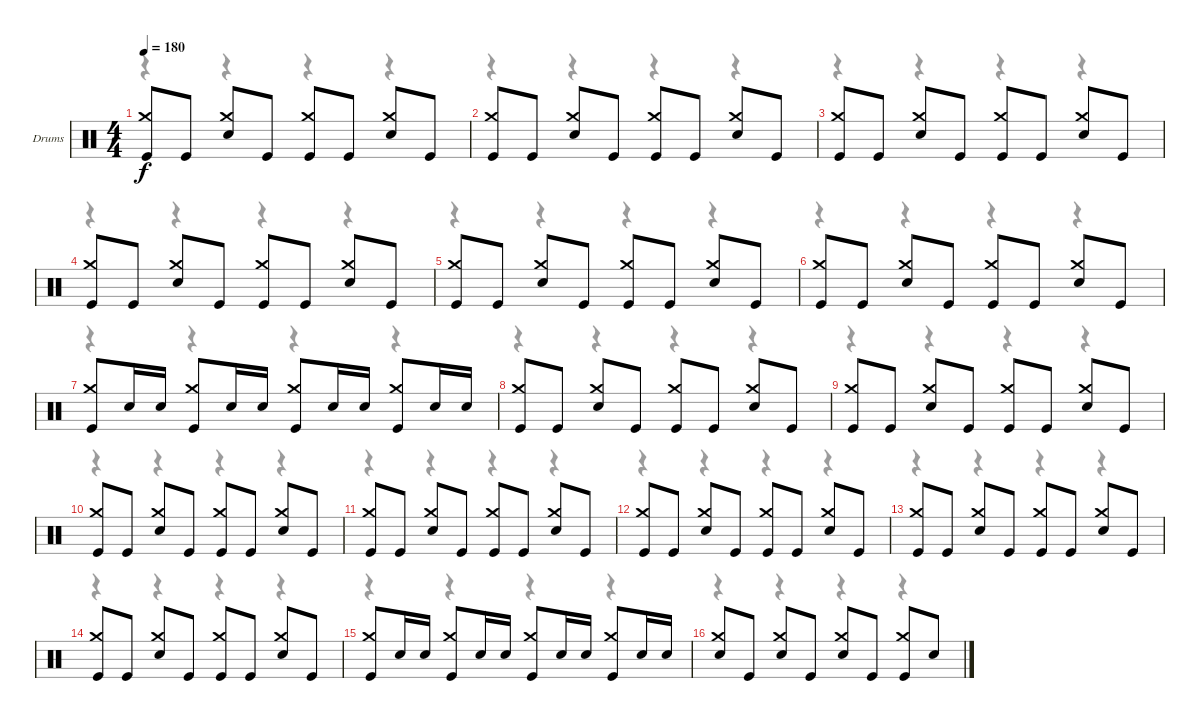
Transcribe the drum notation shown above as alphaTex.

\bracketExtendMode groupsimilarinstruments
\firstSystemTrackNameOrientation horizontal
\otherSystemsTrackNameOrientation horizontal
\track ("Drumkit" "Drums") {instrument percussion}
\staff {score}
\articulation defaults
\voice
\ts (4 4)
\tempo 180
\clef neutral
\ks c
("Crash medium (hit)" "Kick (hit)").8{dy f} "Kick (hit)".8 ("Crash medium (hit)" "Snare (hit) 2").8 "Kick (hit)".8 ("Crash medium (hit)" "Kick (hit)").8 "Kick (hit)".8 ("Crash medium (hit)" "Snare (hit) 2").8 "Kick (hit)".8 |
("Crash medium (hit)" "Kick (hit)").8 "Kick (hit)".8 ("Crash medium (hit)" "Snare (hit) 2").8 "Kick (hit)".8 ("Crash medium (hit)" "Kick (hit)").8 "Kick (hit)".8 ("Crash medium (hit)" "Snare (hit) 2").8 "Kick (hit)".8 |
("Crash medium (hit)" "Kick (hit)").8 "Kick (hit)".8 ("Crash medium (hit)" "Snare (hit) 2").8 "Kick (hit)".8 ("Crash medium (hit)" "Kick (hit)").8 "Kick (hit)".8 ("Crash medium (hit)" "Snare (hit) 2").8 "Kick (hit)".8 |
("Crash medium (hit)" "Kick (hit)").8 "Kick (hit)".8 ("Crash medium (hit)" "Snare (hit) 2").8 "Kick (hit)".8 ("Crash medium (hit)" "Kick (hit)").8 "Kick (hit)".8 ("Crash medium (hit)" "Snare (hit) 2").8 "Kick (hit)".8 |
("Crash medium (hit)" "Kick (hit)").8 "Kick (hit)".8 ("Crash medium (hit)" "Snare (hit) 2").8 "Kick (hit)".8 ("Crash medium (hit)" "Kick (hit)").8 "Kick (hit)".8 ("Crash medium (hit)" "Snare (hit) 2").8 "Kick (hit)".8 |
("Crash medium (hit)" "Kick (hit)").8 "Kick (hit)".8 ("Crash medium (hit)" "Snare (hit) 2").8 "Kick (hit)".8 ("Crash medium (hit)" "Kick (hit)").8 "Kick (hit)".8 ("Crash medium (hit)" "Snare (hit) 2").8 "Kick (hit)".8 |
("Crash medium (hit)" "Kick (hit)").8 "Snare (hit) 2".16 "Snare (hit) 2".16 ("Crash medium (hit)" "Kick (hit)").8 "Snare (hit) 2".16 "Snare (hit) 2".16 ("Crash medium (hit)" "Kick (hit)").8 "Snare (hit) 2".16 "Snare (hit) 2".16 ("Crash medium (hit)" "Kick (hit)").8 "Snare (hit) 2".16 "Snare (hit) 2".16 |
("Crash medium (hit)" "Kick (hit)").8 "Kick (hit)".8 ("Crash medium (hit)" "Snare (hit) 2").8 "Kick (hit)".8 ("Crash medium (hit)" "Kick (hit)").8 "Kick (hit)".8 ("Crash medium (hit)" "Snare (hit) 2").8 "Kick (hit)".8 |
("Crash medium (hit)" "Kick (hit)").8 "Kick (hit)".8 ("Crash medium (hit)" "Snare (hit) 2").8 "Kick (hit)".8 ("Crash medium (hit)" "Kick (hit)").8 "Kick (hit)".8 ("Crash medium (hit)" "Snare (hit) 2").8 "Kick (hit)".8 |
("Crash medium (hit)" "Kick (hit)").8 "Kick (hit)".8 ("Crash medium (hit)" "Snare (hit) 2").8 "Kick (hit)".8 ("Crash medium (hit)" "Kick (hit)").8 "Kick (hit)".8 ("Crash medium (hit)" "Snare (hit) 2").8 "Kick (hit)".8 |
("Crash medium (hit)" "Kick (hit)").8 "Kick (hit)".8 ("Crash medium (hit)" "Snare (hit) 2").8 "Kick (hit)".8 ("Crash medium (hit)" "Kick (hit)").8 "Kick (hit)".8 ("Crash medium (hit)" "Snare (hit) 2").8 "Kick (hit)".8 |
("Crash medium (hit)" "Kick (hit)").8 "Kick (hit)".8 ("Crash medium (hit)" "Snare (hit) 2").8 "Kick (hit)".8 ("Crash medium (hit)" "Kick (hit)").8 "Kick (hit)".8 ("Crash medium (hit)" "Snare (hit) 2").8 "Kick (hit)".8 |
("Crash medium (hit)" "Kick (hit)").8 "Kick (hit)".8 ("Crash medium (hit)" "Snare (hit) 2").8 "Kick (hit)".8 ("Crash medium (hit)" "Kick (hit)").8 "Kick (hit)".8 ("Crash medium (hit)" "Snare (hit) 2").8 "Kick (hit)".8 |
("Crash medium (hit)" "Kick (hit)").8 "Kick (hit)".8 ("Crash medium (hit)" "Snare (hit) 2").8 "Kick (hit)".8 ("Crash medium (hit)" "Kick (hit)").8 "Kick (hit)".8 ("Crash medium (hit)" "Snare (hit) 2").8 "Kick (hit)".8 |
("Crash medium (hit)" "Kick (hit)").8 "Snare (hit) 2".16 "Snare (hit) 2".16 ("Crash medium (hit)" "Kick (hit)").8 "Snare (hit) 2".16 "Snare (hit) 2".16 ("Crash medium (hit)" "Kick (hit)").8 "Snare (hit) 2".16 "Snare (hit) 2".16 ("Crash medium (hit)" "Kick (hit)").8 "Snare (hit) 2".16 "Snare (hit) 2".16 |
("Crash medium (hit)" "Snare (hit) 2").8 "Kick (hit)".8 ("Crash medium (hit)" "Snare (hit) 2").8 "Kick (hit)".8 ("Crash medium (hit)" "Snare (hit) 2").8 "Kick (hit)".8 ("Crash medium (hit)" "Kick (hit)").8 "Snare (hit) 2".8
\voice
\clef neutral
\ottava regular
\simile none
\ks c
r.4{dy mf} r.4 r.4 r.4 |
r.4 r.4 r.4 r.4 |
r.4 r.4 r.4 r.4 |
r.4 r.4 r.4 r.4 |
r.4 r.4 r.4 r.4 |
r.4 r.4 r.4 r.4 |
r.4 r.4 r.4 r.4 |
r.4 r.4 r.4 r.4 |
r.4 r.4 r.4 r.4 |
r.4 r.4 r.4 r.4 |
r.4 r.4 r.4 r.4 |
r.4 r.4 r.4 r.4 |
r.4 r.4 r.4 r.4 |
r.4 r.4 r.4 r.4 |
r.4 r.4 r.4 r.4 |
r.4 r.4 r.4 r.4
